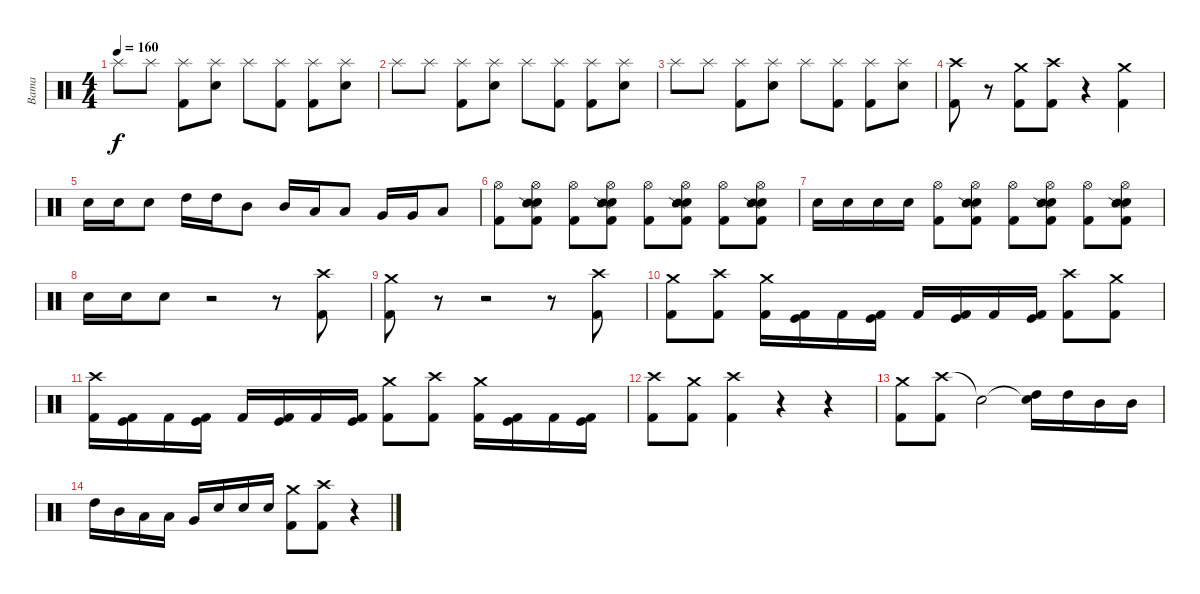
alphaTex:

\track ("Bama" "Bama") {instrument percussion}
\staff {score}
\articulation defaults
\ts (4 4)
\tempo 160
\clef neutral
\ks c "Splash (hit)".8{dy f} "Splash (hit)".8
("Splash (hit)" "Kick (hit) 2").8 ("Splash (hit)" "Electric Snare (hit)").8 "Splash (hit)".8 ("Splash (hit)" "Kick (hit) 2").8 ("Splash (hit)" "Kick (hit) 2").8 ("Splash (hit)" "Electric Snare (hit)").8 |
"Splash (hit)".8 "Splash (hit)".8 ("Splash (hit)" "Kick (hit) 2").8 ("Splash (hit)" "Electric Snare (hit)").8 "Splash (hit)".8 ("Splash (hit)" "Kick (hit) 2").8 ("Splash (hit)" "Kick (hit) 2").8 ("Splash (hit)" "Electric Snare (hit)").8 |
"Splash (hit)".8 "Splash (hit)".8 ("Splash (hit)" "Kick (hit) 2").8 ("Splash (hit)" "Electric Snare (hit)").8 "Splash (hit)".8 ("Splash (hit)" "Kick (hit) 2").8 ("Splash (hit)" "Kick (hit) 2").8 ("Splash (hit)" "Electric Snare (hit)").8 |
("Crash high (hit)" "Kick (hit) 2").8 r.8 ("Crash medium (hit)" "Kick (hit) 2").8 ("Crash high (hit)" "Kick (hit) 2").8 r.4 ("Crash medium (hit)" "Kick (hit) 2").4 |
"Electric Snare (hit)".16 "Electric Snare (hit)".16 "Electric Snare (hit)".8 "High Tom (hit)".16 "High Tom (hit)".16 "Mid Tom (hit)".8 "Mid Tom (hit)".16 "Low Tom (hit)".16 "Low Tom (hit)".8 "Very Low Tom (hit)".16 "Very Low Tom (hit)".16 "Low Floor Tom (hit)".8 |
("Hi-Hat (open)" "Kick (hit) 2").8 ("Hi-Hat (open)" "Electric Snare (hit)" "Snare (side stick) 2" "Kick (hit) 2").8 ("Hi-Hat (open)" "Kick (hit) 2").8 ("Hi-Hat (open)" "Electric Snare (hit)" "Snare (side stick) 2" "Kick (hit) 2").8 ("Hi-Hat (open)" "Kick (hit) 2").8 ("Hi-Hat (open)" "Electric Snare (hit)" "Snare (side stick) 2" "Kick (hit) 2").8 ("Hi-Hat (open)" "Kick (hit) 2").8 ("Hi-Hat (open)" "Electric Snare (hit)" "Snare (side stick) 2" "Kick (hit) 2").8 |
"Electric Snare (hit)".16 "Electric Snare (hit)".16 "Electric Snare (hit)".16 "Electric Snare (hit)".16 ("Hi-Hat (open)" "Kick (hit) 2").8 ("Hi-Hat (open)" "Electric Snare (hit)" "Snare (side stick) 2" "Kick (hit) 2").8 ("Hi-Hat (open)" "Kick (hit) 2").8 ("Hi-Hat (open)" "Electric Snare (hit)" "Snare (side stick) 2" "Kick (hit) 2").8 ("Hi-Hat (open)" "Kick (hit) 2").8 ("Hi-Hat (open)" "Electric Snare (hit)" "Snare (side stick) 2" "Kick (hit) 2").8 |
"Electric Snare (hit)".16 "Electric Snare (hit)".16 "Electric Snare (hit)".8 r.2 r.8 ("Crash high (hit)" "Kick (hit) 2").8 |
("Crash medium (hit)" "Kick (hit) 2").8 r.8 r.2 r.8 ("Crash high (hit)" "Kick (hit) 2").8 |
("Crash medium (hit)" "Kick (hit) 2").8 ("Crash high (hit)" "Kick (hit) 2").8 ("Crash medium (hit)" "Kick (hit) 2").16 ("Kick (hit)" "Kick (hit) 2").16 "Kick (hit) 2".16 ("Kick (hit)" "Kick (hit) 2").16 "Kick (hit) 2".16 ("Kick (hit)" "Kick (hit) 2").16 "Kick (hit) 2".16 ("Kick (hit)" "Kick (hit) 2").16 ("Crash high (hit)" "Kick (hit) 2").8 ("Crash medium (hit)" "Kick (hit) 2").8 |
("Crash high (hit)" "Kick (hit) 2").16 ("Kick (hit)" "Kick (hit) 2").16 "Kick (hit) 2".16 ("Kick (hit)" "Kick (hit) 2").16 "Kick (hit) 2".16 ("Kick (hit)" "Kick (hit) 2").16 "Kick (hit) 2".16 ("Kick (hit)" "Kick (hit) 2").16 ("Crash medium (hit)" "Kick (hit) 2").8 ("Crash high (hit)" "Kick (hit) 2").8 ("Crash medium (hit)" "Kick (hit) 2").16 ("Kick (hit)" "Kick (hit) 2").16 "Kick (hit) 2".16 ("Kick (hit)" "Kick (hit) 2").16 |
("Crash high (hit)" "Kick (hit) 2").8 ("Crash medium (hit)" "Kick (hit) 2").8 ("Crash high (hit)" "Kick (hit) 2").4 r.4 r.4 |
("Crash medium (hit)" "Kick (hit) 2").8 ("Crash high (hit)" "Kick (hit) 2").8 "Snare (hit)"{t}.2 ("Snare (hit)"{t} "High Tom (hit)").16 "High Tom (hit)".16 "Mid Tom (hit)".16 "Mid Tom (hit)".16 |
"High Tom (hit)".16 "Mid Tom (hit)".16 "Low Tom (hit)".16 "Low Tom (hit)".16 "Very Low Tom (hit)".16 "Electric Snare (hit)".16 "Electric Snare (hit)".16 "Electric Snare (hit)".16 ("Crash medium (hit)" "Kick (hit) 2").8 ("Crash high (hit)" "Kick (hit) 2").8 r.4
